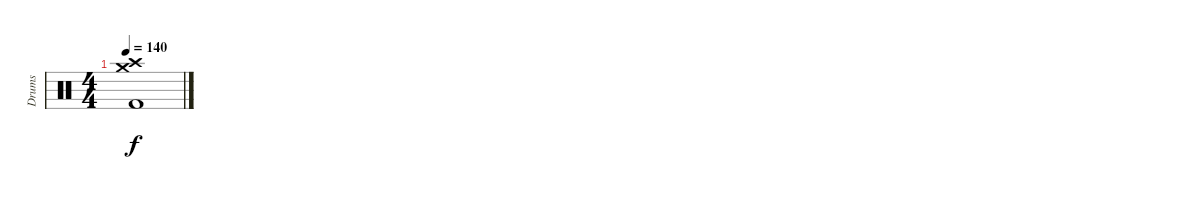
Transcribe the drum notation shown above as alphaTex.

\track ("Drums" "Drums") {instrument percussion}
\staff {score}
\articulation defaults
\ts (4 4)
\tempo 140
\clef neutral
\ks c
("Crash high (hit)" "Crash medium (hit)" "Kick (hit) 2").1{dy f}
